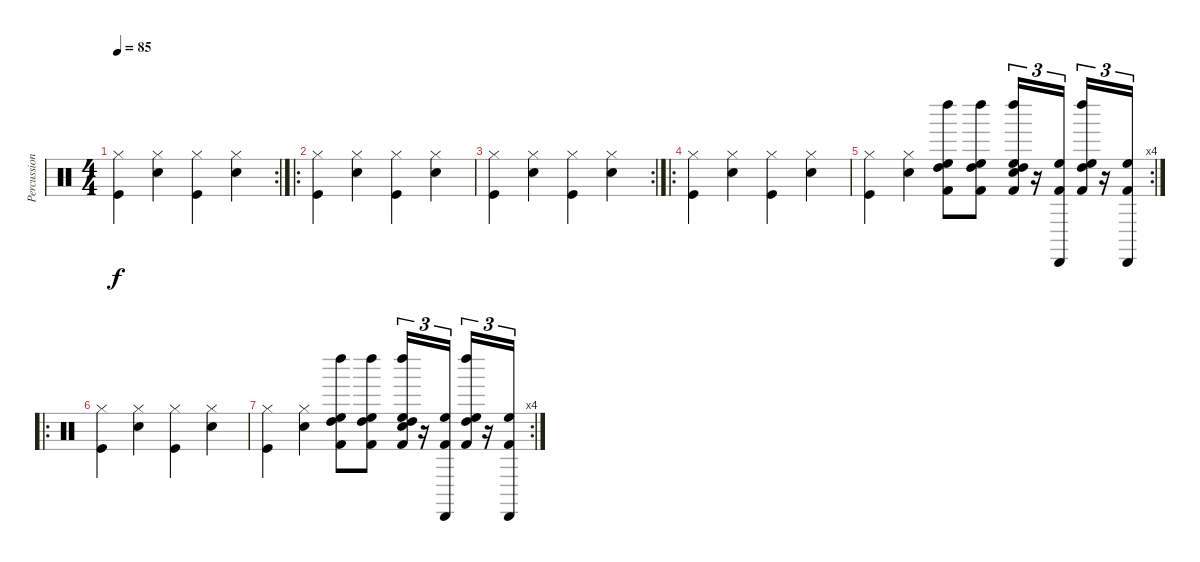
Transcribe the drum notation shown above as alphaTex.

\track ("Percussion" "Percussion") {instrument percussion}
\staff {score}
\articulation defaults
\rc 2
\ts (4 4)
\tempo 85
\clef neutral
\ks c
("Hi-Hat (closed)" "Kick (hit)").4{dy f} ("Hi-Hat (closed)" "Snare (hit) 2").4 ("Hi-Hat (closed)" "Kick (hit)").4 ("Hi-Hat (closed)" "Snare (hit) 2").4 |
\ro
("Hi-Hat (closed)" "Kick (hit)").4 ("Hi-Hat (closed)" "Snare (hit) 2").4 ("Hi-Hat (closed)" "Kick (hit)").4 ("Hi-Hat (closed)" "Snare (hit) 2").4 |
\rc 2
("Hi-Hat (closed)" "Kick (hit)").4 ("Hi-Hat (closed)" "Snare (hit) 2").4 ("Hi-Hat (closed)" "Kick (hit)").4 ("Hi-Hat (closed)" "Snare (hit) 2").4 |
\ro
("Hi-Hat (closed)" "Kick (hit)").4 ("Hi-Hat (closed)" "Snare (hit) 2").4 ("Hi-Hat (closed)" "Kick (hit)").4 ("Hi-Hat (closed)" "Snare (hit) 2").4 |
\rc 4
("Hi-Hat (closed)" "Kick (hit)").4 ("Hi-Hat (closed)" "Snare (hit) 2").4 ("High Floor Tom (hit)" "High Tom (hit)" "Left Maraca (hit)" "Kick (hit) 2").8 ("High Floor Tom (hit)" "High Tom (hit)" "Left Maraca (hit)" "Kick (hit) 2").8 ("High Floor Tom (hit)" "High Tom (hit)" "Left Maraca (hit)" "Snare (hit) 2" "Kick (hit) 2").16{tu (3 2)} r.16{tu (3 2)} ("High Floor Tom (hit)" "Cabasa (hit)" "Kick (hit) 2").16{tu (3 2)} ("High Floor Tom (hit)" "High Tom (hit)" "Left Maraca (hit)" "Kick (hit) 2").16{tu (3 2)} r.16{tu (3 2)} ("High Floor Tom (hit)" "Cabasa (hit)" "Kick (hit) 2").16{tu (3 2)} |
\ro
("Hi-Hat (closed)" "Kick (hit)").4 ("Hi-Hat (closed)" "Snare (hit) 2").4 ("Hi-Hat (closed)" "Kick (hit)").4 ("Hi-Hat (closed)" "Snare (hit) 2").4 |
\rc 4
("Hi-Hat (closed)" "Kick (hit)").4 ("Hi-Hat (closed)" "Snare (hit) 2").4 ("High Floor Tom (hit)" "High Tom (hit)" "Left Maraca (hit)" "Kick (hit) 2").8 ("High Floor Tom (hit)" "High Tom (hit)" "Left Maraca (hit)" "Kick (hit) 2").8 ("High Floor Tom (hit)" "High Tom (hit)" "Left Maraca (hit)" "Snare (hit) 2" "Kick (hit) 2").16{tu (3 2)} r.16{tu (3 2)} ("High Floor Tom (hit)" "Cabasa (hit)" "Kick (hit) 2").16{tu (3 2)} ("High Floor Tom (hit)" "High Tom (hit)" "Left Maraca (hit)" "Kick (hit) 2").16{tu (3 2)} r.16{tu (3 2)} ("High Floor Tom (hit)" "Cabasa (hit)" "Kick (hit) 2").16{tu (3 2)}
